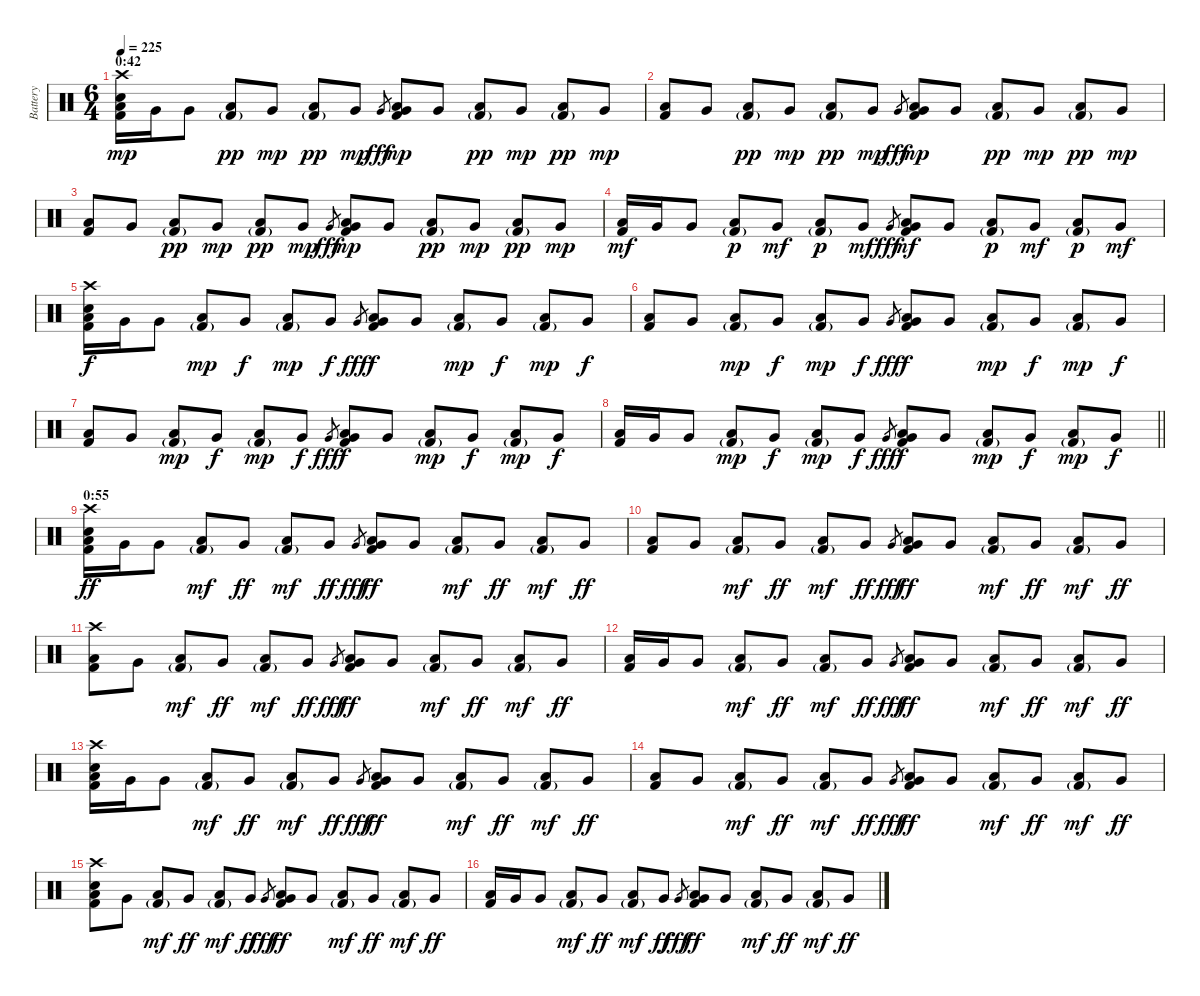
\track ("Battery" "Battery") {instrument percussion}
\staff {score}
\articulation defaults
\ts (6 4)
\section ("" "0:42")
\tempo 225
\clef neutral
\ks c
("Crash high (hit)" "Low Tom (hit)" "Electric Snare (hit)" "Kick (hit) 2").16{dy mp} "Very Low Tom (hit)".16 "Very Low Tom (hit)".8 ("Low Tom (hit)" "Kick (hit) 2"{g}).8{dy pp} "Very Low Tom (hit)".8{dy mp} ("Low Tom (hit)" "Kick (hit) 2"{g}).8{dy pp} "Very Low Tom (hit)".8{dy mp} "Very Low Tom (hit)".8{gr dy fff} ("Low Tom (hit)" "Very Low Tom (hit)" "Kick (hit) 2").8{dy mp} "Very Low Tom (hit)".8 ("Low Tom (hit)" "Kick (hit) 2"{g}).8{dy pp} "Very Low Tom (hit)".8{dy mp} ("Low Tom (hit)" "Kick (hit) 2"{g}).8{dy pp} "Very Low Tom (hit)".8{dy mp} |
("Low Tom (hit)" "Kick (hit) 2").8 "Very Low Tom (hit)".8 ("Low Tom (hit)" "Kick (hit) 2"{g}).8{dy pp} "Very Low Tom (hit)".8{dy mp} ("Low Tom (hit)" "Kick (hit) 2"{g}).8{dy pp} "Very Low Tom (hit)".8{dy mp} "Very Low Tom (hit)".8{gr dy fff} ("Low Tom (hit)" "Very Low Tom (hit)" "Kick (hit) 2").8{dy mp} "Very Low Tom (hit)".8 ("Low Tom (hit)" "Kick (hit) 2"{g}).8{dy pp} "Very Low Tom (hit)".8{dy mp} ("Low Tom (hit)" "Kick (hit) 2"{g}).8{dy pp} "Very Low Tom (hit)".8{dy mp} |
("Low Floor Tom (hit)" "Kick (hit) 2").8 "Very Low Tom (hit)".8 ("Low Tom (hit)" "Kick (hit) 2"{g}).8{dy pp} "Very Low Tom (hit)".8{dy mp} ("Low Tom (hit)" "Kick (hit) 2"{g}).8{dy pp} "Very Low Tom (hit)".8{dy mp} "Very Low Tom (hit)".8{gr dy fff} ("Low Tom (hit)" "Very Low Tom (hit)" "Kick (hit) 2").8{dy mp} "Very Low Tom (hit)".8 ("Low Tom (hit)" "Kick (hit) 2"{g}).8{dy pp} "Very Low Tom (hit)".8{dy mp} ("Low Tom (hit)" "Kick (hit) 2"{g}).8{dy pp} "Very Low Tom (hit)".8{dy mp} |
("Low Tom (hit)" "Kick (hit) 2").16{dy mf} "Very Low Tom (hit)".16 "Very Low Tom (hit)".8 ("Low Tom (hit)" "Kick (hit) 2"{g}).8{dy p} "Very Low Tom (hit)".8{dy mf} ("Low Tom (hit)" "Kick (hit) 2"{g}).8{dy p} "Very Low Tom (hit)".8{dy mf} "Very Low Tom (hit)".8{gr dy fff} ("Low Tom (hit)" "Very Low Tom (hit)" "Kick (hit) 2").8{dy mf} "Very Low Tom (hit)".8 ("Low Tom (hit)" "Kick (hit) 2"{g}).8{dy p} "Very Low Tom (hit)".8{dy mf} ("Low Tom (hit)" "Kick (hit) 2"{g}).8{dy p} "Very Low Tom (hit)".8{dy mf} |
("Crash high (hit)" "Low Tom (hit)" "Electric Snare (hit)" "Kick (hit) 2").16{dy f} "Very Low Tom (hit)".16 "Very Low Tom (hit)".8 ("Low Tom (hit)" "Kick (hit) 2"{g}).8{dy mp} "Very Low Tom (hit)".8{dy f} ("Low Tom (hit)" "Kick (hit) 2"{g}).8{dy mp} "Very Low Tom (hit)".8{dy f} "Very Low Tom (hit)".8{gr dy fff} ("Low Tom (hit)" "Very Low Tom (hit)" "Kick (hit) 2").8{dy f} "Very Low Tom (hit)".8 ("Low Tom (hit)" "Kick (hit) 2"{g}).8{dy mp} "Very Low Tom (hit)".8{dy f} ("Low Tom (hit)" "Kick (hit) 2"{g}).8{dy mp} "Very Low Tom (hit)".8{dy f} |
("Low Tom (hit)" "Kick (hit) 2").8 "Very Low Tom (hit)".8 ("Low Tom (hit)" "Kick (hit) 2"{g}).8{dy mp} "Very Low Tom (hit)".8{dy f} ("Low Tom (hit)" "Kick (hit) 2"{g}).8{dy mp} "Very Low Tom (hit)".8{dy f} "Very Low Tom (hit)".8{gr dy fff} ("Low Tom (hit)" "Very Low Tom (hit)" "Kick (hit) 2").8{dy f} "Very Low Tom (hit)".8 ("Low Tom (hit)" "Kick (hit) 2"{g}).8{dy mp} "Very Low Tom (hit)".8{dy f} ("Low Tom (hit)" "Kick (hit) 2"{g}).8{dy mp} "Very Low Tom (hit)".8{dy f} |
("Low Floor Tom (hit)" "Kick (hit) 2").8 "Very Low Tom (hit)".8 ("Low Tom (hit)" "Kick (hit) 2"{g}).8{dy mp} "Very Low Tom (hit)".8{dy f} ("Low Tom (hit)" "Kick (hit) 2"{g}).8{dy mp} "Very Low Tom (hit)".8{dy f} "Very Low Tom (hit)".8{gr dy fff} ("Low Tom (hit)" "Very Low Tom (hit)" "Kick (hit) 2").8{dy f} "Very Low Tom (hit)".8 ("Low Tom (hit)" "Kick (hit) 2"{g}).8{dy mp} "Very Low Tom (hit)".8{dy f} ("Low Tom (hit)" "Kick (hit) 2"{g}).8{dy mp} "Very Low Tom (hit)".8{dy f} |
\barLineRight lightlight
("Low Tom (hit)" "Kick (hit) 2").16 "Very Low Tom (hit)".16 "Very Low Tom (hit)".8 ("Low Tom (hit)" "Kick (hit) 2"{g}).8{dy mp} "Very Low Tom (hit)".8{dy f} ("Low Tom (hit)" "Kick (hit) 2"{g}).8{dy mp} "Very Low Tom (hit)".8{dy f} "Very Low Tom (hit)".8{gr dy fff} ("Low Tom (hit)" "Very Low Tom (hit)" "Kick (hit) 2").8{dy f} "Very Low Tom (hit)".8 ("Low Tom (hit)" "Kick (hit) 2"{g}).8{dy mp} "Very Low Tom (hit)".8{dy f} ("Low Tom (hit)" "Kick (hit) 2"{g}).8{dy mp} "Very Low Tom (hit)".8{dy f} |
\section ("" "0:55")
("Crash high (hit)" "Low Tom (hit)" "Electric Snare (hit)" "Kick (hit) 2").16{dy ff} "Very Low Tom (hit)".16 "Very Low Tom (hit)".8 ("Low Tom (hit)" "Kick (hit) 2"{g}).8{dy mf} "Very Low Tom (hit)".8{dy ff} ("Low Tom (hit)" "Kick (hit) 2"{g}).8{dy mf} "Very Low Tom (hit)".8{dy ff} "Very Low Tom (hit)".8{gr dy fff} ("Low Tom (hit)" "Very Low Tom (hit)" "Kick (hit) 2").8{dy ff} "Very Low Tom (hit)".8 ("Low Tom (hit)" "Kick (hit) 2"{g}).8{dy mf} "Very Low Tom (hit)".8{dy ff} ("Low Tom (hit)" "Kick (hit) 2"{g}).8{dy mf} "Very Low Tom (hit)".8{dy ff} |
("Low Tom (hit)" "Kick (hit) 2").8 "Very Low Tom (hit)".8 ("Low Tom (hit)" "Kick (hit) 2"{g}).8{dy mf} "Very Low Tom (hit)".8{dy ff} ("Low Tom (hit)" "Kick (hit) 2"{g}).8{dy mf} "Very Low Tom (hit)".8{dy ff} "Very Low Tom (hit)".8{gr dy fff} ("Low Tom (hit)" "Very Low Tom (hit)" "Kick (hit) 2").8{dy ff} "Very Low Tom (hit)".8 ("Low Tom (hit)" "Kick (hit) 2"{g}).8{dy mf} "Very Low Tom (hit)".8{dy ff} ("Low Tom (hit)" "Kick (hit) 2"{g}).8{dy mf} "Very Low Tom (hit)".8{dy ff} |
("Crash high (hit)" "Low Floor Tom (hit)" "Kick (hit) 2").8 "Very Low Tom (hit)".8 ("Low Tom (hit)" "Kick (hit) 2"{g}).8{dy mf} "Very Low Tom (hit)".8{dy ff} ("Low Tom (hit)" "Kick (hit) 2"{g}).8{dy mf} "Very Low Tom (hit)".8{dy ff} "Very Low Tom (hit)".8{gr dy fff} ("Low Tom (hit)" "Very Low Tom (hit)" "Kick (hit) 2").8{dy ff} "Very Low Tom (hit)".8 ("Low Tom (hit)" "Kick (hit) 2"{g}).8{dy mf} "Very Low Tom (hit)".8{dy ff} ("Low Tom (hit)" "Kick (hit) 2"{g}).8{dy mf} "Very Low Tom (hit)".8{dy ff} |
("Low Tom (hit)" "Kick (hit) 2").16 "Very Low Tom (hit)".16 "Very Low Tom (hit)".8 ("Low Tom (hit)" "Kick (hit) 2"{g}).8{dy mf} "Very Low Tom (hit)".8{dy ff} ("Low Tom (hit)" "Kick (hit) 2"{g}).8{dy mf} "Very Low Tom (hit)".8{dy ff} "Very Low Tom (hit)".8{gr dy fff} ("Low Tom (hit)" "Very Low Tom (hit)" "Kick (hit) 2").8{dy ff} "Very Low Tom (hit)".8 ("Low Tom (hit)" "Kick (hit) 2"{g}).8{dy mf} "Very Low Tom (hit)".8{dy ff} ("Low Tom (hit)" "Kick (hit) 2"{g}).8{dy mf} "Very Low Tom (hit)".8{dy ff} |
("Crash high (hit)" "Low Tom (hit)" "Electric Snare (hit)" "Kick (hit) 2").16 "Very Low Tom (hit)".16 "Very Low Tom (hit)".8 ("Low Tom (hit)" "Kick (hit) 2"{g}).8{dy mf} "Very Low Tom (hit)".8{dy ff} ("Low Tom (hit)" "Kick (hit) 2"{g}).8{dy mf} "Very Low Tom (hit)".8{dy ff} "Very Low Tom (hit)".8{gr dy fff} ("Low Tom (hit)" "Very Low Tom (hit)" "Kick (hit) 2").8{dy ff} "Very Low Tom (hit)".8 ("Low Tom (hit)" "Kick (hit) 2"{g}).8{dy mf} "Very Low Tom (hit)".8{dy ff} ("Low Tom (hit)" "Kick (hit) 2"{g}).8{dy mf} "Very Low Tom (hit)".8{dy ff} |
("Low Tom (hit)" "Kick (hit) 2").8 "Very Low Tom (hit)".8 ("Low Tom (hit)" "Kick (hit) 2"{g}).8{dy mf} "Very Low Tom (hit)".8{dy ff} ("Low Tom (hit)" "Kick (hit) 2"{g}).8{dy mf} "Very Low Tom (hit)".8{dy ff} "Very Low Tom (hit)".8{gr dy fff} ("Low Tom (hit)" "Very Low Tom (hit)" "Kick (hit) 2").8{dy ff} "Very Low Tom (hit)".8 ("Low Tom (hit)" "Kick (hit) 2"{g}).8{dy mf} "Very Low Tom (hit)".8{dy ff} ("Low Tom (hit)" "Kick (hit) 2"{g}).8{dy mf} "Very Low Tom (hit)".8{dy ff} |
("Crash high (hit)" "Low Floor Tom (hit)" "Electric Snare (hit)" "Kick (hit) 2").8 "Very Low Tom (hit)".8 ("Low Tom (hit)" "Kick (hit) 2"{g}).8{dy mf} "Very Low Tom (hit)".8{dy ff} ("Low Tom (hit)" "Kick (hit) 2"{g}).8{dy mf} "Very Low Tom (hit)".8{dy ff} "Very Low Tom (hit)".8{gr dy fff} ("Low Tom (hit)" "Very Low Tom (hit)" "Kick (hit) 2").8{dy ff} "Very Low Tom (hit)".8 ("Low Tom (hit)" "Kick (hit) 2"{g}).8{dy mf} "Very Low Tom (hit)".8{dy ff} ("Low Tom (hit)" "Kick (hit) 2"{g}).8{dy mf} "Very Low Tom (hit)".8{dy ff} |
("Low Tom (hit)" "Kick (hit) 2").16 "Very Low Tom (hit)".16 "Very Low Tom (hit)".8 ("Low Tom (hit)" "Kick (hit) 2"{g}).8{dy mf} "Very Low Tom (hit)".8{dy ff} ("Low Tom (hit)" "Kick (hit) 2"{g}).8{dy mf} "Very Low Tom (hit)".8{dy ff} "Very Low Tom (hit)".8{gr dy fff} ("Low Tom (hit)" "Very Low Tom (hit)" "Kick (hit) 2").8{dy ff} "Very Low Tom (hit)".8 ("Low Tom (hit)" "Kick (hit) 2"{g}).8{dy mf} "Very Low Tom (hit)".8{dy ff} ("Low Tom (hit)" "Kick (hit) 2"{g}).8{dy mf} "Very Low Tom (hit)".8{dy ff}
